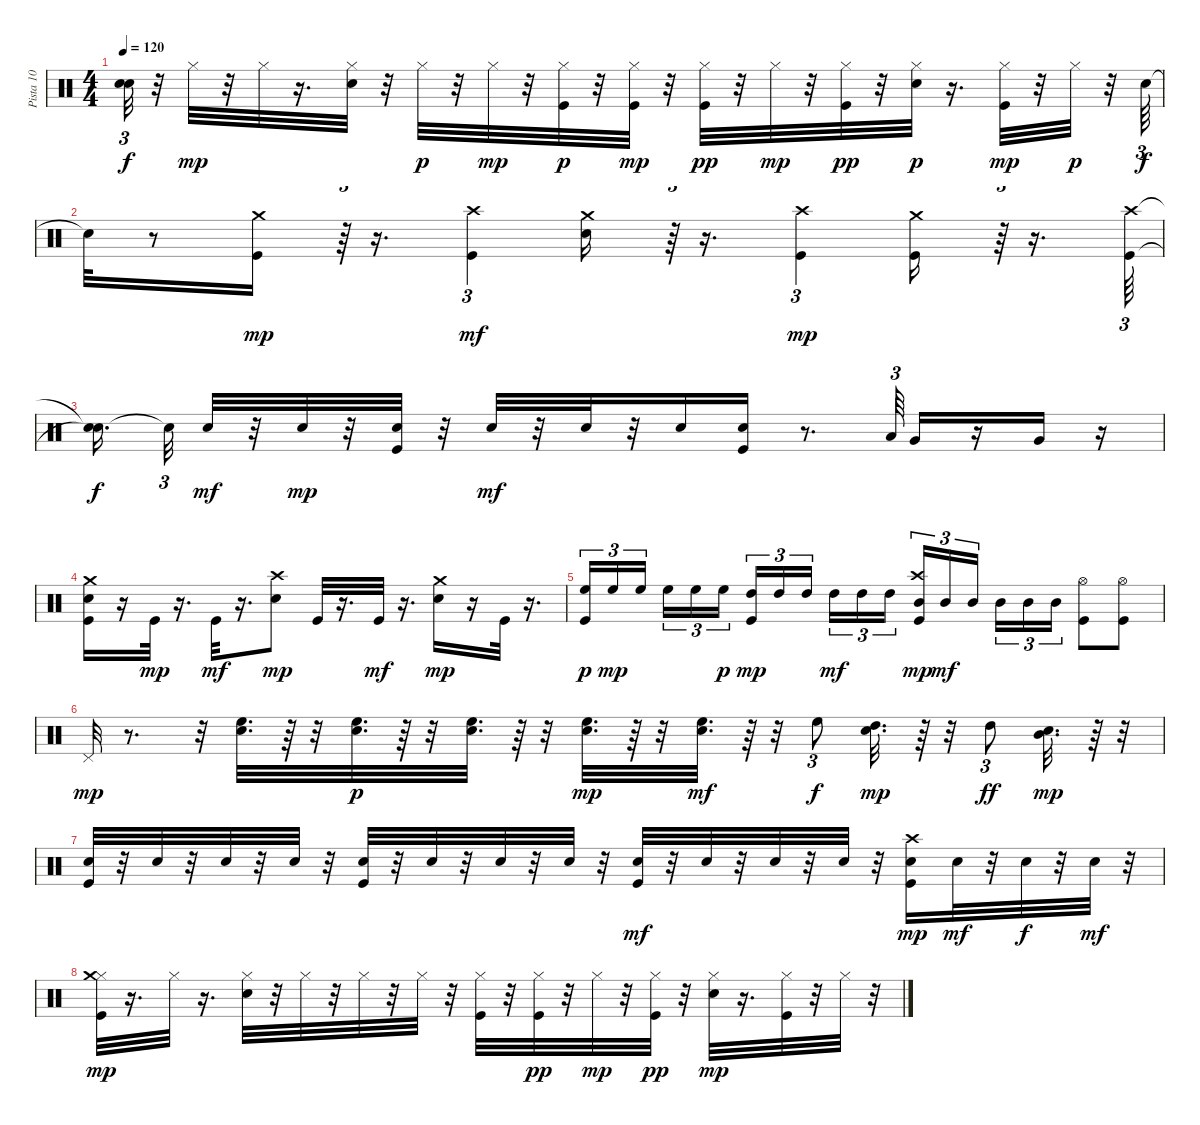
\track ("Pista 10" "Pista 10") {instrument percussion}
\staff {score}
\articulation defaults
\ts (4 4)
\tempo 120
\clef neutral
\ks c
("Snare (hit)"{t} "Snare (hit)"{t}).32{tu (3 2) dy f} r.32 "Hi-Hat (closed)".32{dy mp} r.32 "Hi-Hat (closed)".32 r.16{d} ("Hi-Hat (closed)" "Snare (hit) 2").32 r.32 "Hi-Hat (closed)".32{dy p} r.32 "Hi-Hat (closed)".32{dy mp} r.32 ("Kick (hit)" "Hi-Hat (closed)").32{dy p} r.32 ("Kick (hit)" "Hi-Hat (closed)").32{dy mp} r.32 ("Kick (hit)" "Hi-Hat (closed)").32{dy pp} r.32 "Hi-Hat (closed)".32{dy mp} r.32 ("Kick (hit)" "Hi-Hat (closed)").32{dy pp} r.32 ("Hi-Hat (closed)" "Snare (hit) 2").32{dy p} r.16{d} ("Hi-Hat (closed)" "Kick (hit)").32{dy mp} r.32 "Hi-Hat (closed)".32{dy p} r.32 "Snare (hit) 2".64{tu (3 2) dy f} |
"Snare (hit)"{t}.32 r.8 ("Kick (hit)" "Crash medium (hit)").16{dy mp} r.64{tu (3 2)} r.16{d} ("Kick (hit)" "Crash high (hit)").4{tu (3 2) dy mf} ("Crash medium (hit)" "Snare (hit) 2").16 r.64{tu (3 2)} r.16{d} ("Kick (hit)" "Crash high (hit)").4{tu (3 2) dy mp} ("Kick (hit)" "Crash medium (hit)").16 r.64{tu (3 2)} r.16{d} ("Kick (hit)" "Crash high (hit)").64{tu (3 2)} |
("Snare (hit)"{t} "Snare (hit)"{t}).16{d dy f beam splitsecondary} "Snare (hit)"{t}.32{tu (3 2)} "Snare (hit) 2".32{dy mf} r.32 "Snare (hit) 2".32{dy mp} r.32 ("Kick (hit)" "Snare (hit) 2").32 r.32 "Snare (hit) 2".32{dy mf} r.32 "Snare (hit) 2".32 r.32 "Snare (hit) 2".16 ("Kick (hit)" "Snare (hit) 2").16 r.8{d} "Low Floor Tom (hit)".64{tu (3 2)} "Very Low Tom (hit)".16 r.16 "Very Low Tom (hit)".16 r.16 |
("Kick (hit)" "Crash medium (hit)" "Snare (hit) 2").16 r.16 "Kick (hit)".32{dy mp} r.16{d} "Kick (hit)".32{dy mf} r.16{d} ("Crash high (hit)" "Snare (hit) 2").8{dy mp} "Kick (hit)".32 r.16{d} "Kick (hit)".32{dy mf} r.16{d} ("Crash medium (hit)" "Snare (hit) 2").16{dy mp} r.16 "Kick (hit)".32 r.16{d} |
("Kick (hit)" "High Floor Tom (hit)").16{tu (3 2) dy p} "High Floor Tom (hit)".16{tu (3 2) dy mp} "High Floor Tom (hit)".16{tu (3 2) beam splitsecondary} "High Floor Tom (hit)".16{tu (3 2)} "High Floor Tom (hit)".16{tu (3 2)} "High Floor Tom (hit)".16{tu (3 2) dy p} ("Kick (hit)" "High Tom (hit)").16{tu (3 2) dy mp} "High Tom (hit)".16{tu (3 2)} "High Tom (hit)".16{tu (3 2) beam splitsecondary} "High Tom (hit)".16{tu (3 2) dy mf} "High Tom (hit)".16{tu (3 2)} "High Tom (hit)".16{tu (3 2)} ("Kick (hit)" "Mid Tom (hit)" "Crash high (hit)").16{tu (3 2) dy mp} "Mid Tom (hit)".16{tu (3 2) dy mf} "Mid Tom (hit)".16{tu (3 2) beam splitsecondary} "Mid Tom (hit)".16{tu (3 2)} "Mid Tom (hit)".16{tu (3 2)} "Mid Tom (hit)".16{tu (3 2)} ("Kick (hit)" "Hi-Hat (open)").8 ("Kick (hit)" "Hi-Hat (open)").8 |
"Pedal Hi-Hat (hit)".32{dy mp} r.8{d} r.32 ("High Floor Tom (hit)" "Snare (hit) 2").32{d} r.64 r.32 ("High Floor Tom (hit)" "Snare (hit) 2").32{d dy p} r.64 r.32 ("High Floor Tom (hit)" "Snare (hit) 2").32{d} r.64 r.32 ("High Floor Tom (hit)" "Snare (hit) 2").32{d dy mp} r.64 r.32 ("High Floor Tom (hit)" "Snare (hit) 2").32{d dy mf} r.64 r.32 "High Floor Tom (hit)".8{tu (3 2) dy f} ("Snare (hit) 2" "High Tom (hit)").32{d dy mp} r.64 r.32 "High Tom (hit)".8{tu (3 2) dy ff} ("Snare (hit) 2" "Mid Tom (hit)").32{d dy mp} r.64 r.32 |
("Kick (hit)" "Snare (hit) 2").32 r.32 "Snare (hit) 2".32 r.32 "Snare (hit) 2".32 r.32 "Snare (hit) 2".32 r.32 ("Kick (hit)" "Snare (hit) 2").32 r.32 "Snare (hit) 2".32 r.32 "Snare (hit) 2".32 r.32 "Snare (hit) 2".32 r.32 ("Kick (hit)" "Snare (hit) 2").32{dy mf} r.32 "Snare (hit) 2".32 r.32 "Snare (hit) 2".32 r.32 "Snare (hit) 2".32 r.32 ("Kick (hit)" "Crash high (hit)" "Snare (hit) 2").16{dy mp} "Snare (hit) 2".32{dy mf} r.32 "Snare (hit) 2".32{dy f} r.32 "Snare (hit) 2".32{dy mf} r.32 |
("Kick (hit)" "Hi-Hat (closed)" "Crash medium (hit)").32{dy mp} r.16{d} "Hi-Hat (closed)".32 r.16{d} ("Hi-Hat (closed)" "Snare (hit) 2").32 r.32 "Hi-Hat (closed)".32 r.32 "Hi-Hat (closed)".32 r.32 "Hi-Hat (closed)".32 r.32 ("Kick (hit)" "Hi-Hat (closed)").32 r.32 ("Kick (hit)" "Hi-Hat (closed)").32{dy pp} r.32 "Hi-Hat (closed)".32{dy mp} r.32 ("Kick (hit)" "Hi-Hat (closed)").32{dy pp} r.32 ("Hi-Hat (closed)" "Snare (hit) 2").32{dy mp} r.16{d} ("Hi-Hat (closed)" "Kick (hit)").32 r.32 "Hi-Hat (closed)".32 r.32
